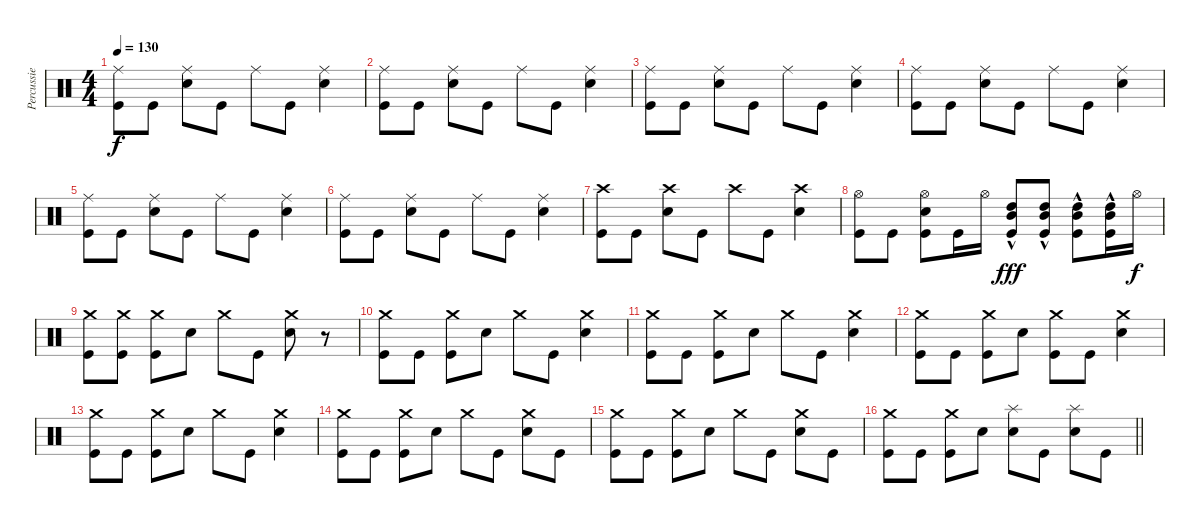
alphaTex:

\track ("Percussie" "Percussie") {instrument percussion}
\staff {score}
\articulation defaults
\ts (4 4)
\tempo 130
\clef neutral
\ks c
("Ride (middle)" "Kick (hit)").8{dy f} "Kick (hit)".8 ("Ride (middle)" "Snare (hit) 2").8 "Kick (hit)".8 "Ride (middle)".8 "Kick (hit)".8 ("Ride (middle)" "Snare (hit) 2").4 |
("Ride (middle)" "Kick (hit)").8 "Kick (hit)".8 ("Ride (middle)" "Snare (hit) 2").8 "Kick (hit)".8 "Ride (middle)".8 "Kick (hit)".8 ("Ride (middle)" "Snare (hit) 2").4 |
("Ride (middle)" "Kick (hit)").8 "Kick (hit)".8 ("Ride (middle)" "Snare (hit) 2").8 "Kick (hit)".8 "Ride (middle)".8 "Kick (hit)".8 ("Ride (middle)" "Snare (hit) 2").4 |
("Ride (middle)" "Kick (hit)").8 "Kick (hit)".8 ("Ride (middle)" "Snare (hit) 2").8 "Kick (hit)".8 "Ride (middle)".8 "Kick (hit)".8 ("Ride (middle)" "Snare (hit) 2").4 |
("Ride (middle)" "Kick (hit)").8 "Kick (hit)".8 ("Ride (middle)" "Snare (hit) 2").8 "Kick (hit)".8 "Ride (middle)".8 "Kick (hit)".8 ("Ride (middle)" "Snare (hit) 2").4 |
("Ride (middle)" "Kick (hit)").8 "Kick (hit)".8 ("Ride (middle)" "Snare (hit) 2").8 "Kick (hit)".8 "Ride (middle)".8 "Kick (hit)".8 ("Ride (middle)" "Snare (hit) 2").4 |
("Crash high (hit)" "Kick (hit)").8 "Kick (hit)".8 ("Crash high (hit)" "Snare (hit) 2").8 "Kick (hit)".8 "Crash high (hit)".8 "Kick (hit)".8 ("Crash high (hit)" "Snare (hit) 2").4 |
("Hi-Hat (open)" "Kick (hit)").8 "Kick (hit)".8 ("Hi-Hat (open)" "Snare (hit) 2" "Kick (hit)").8 "Kick (hit)".16 "Hi-Hat (open)".16 ("Mid Tom (hit)"{hac} "High Tom (hit)"{hac} "Kick (hit)"{hac}).8{dy fff} ("Mid Tom (hit)"{hac} "High Tom (hit)"{hac} "Kick (hit)"{hac}).8 ("Mid Tom (hit)"{hac} "High Tom (hit)"{hac} "Kick (hit)"{hac}).8 ("Mid Tom (hit)"{hac} "High Tom (hit)"{hac} "Kick (hit)"{hac}).16 "Hi-Hat (open)".16{dy f} |
("Crash medium (hit)" "Kick (hit)").8 ("Crash medium (hit)" "Kick (hit)").8 ("Crash medium (hit)" "Kick (hit)").8 "Snare (hit) 2".8 "Crash medium (hit)".8 "Kick (hit)".8 ("Crash medium (hit)" "Snare (hit) 2").8 r.8 |
("Crash medium (hit)" "Kick (hit)").8 "Kick (hit)".8 ("Crash medium (hit)" "Kick (hit)").8 "Snare (hit) 2".8 "Crash medium (hit)".8 "Kick (hit)".8 ("Crash medium (hit)" "Snare (hit) 2").4 |
("Crash medium (hit)" "Kick (hit)").8 "Kick (hit)".8 ("Crash medium (hit)" "Kick (hit)").8 "Snare (hit) 2".8 "Crash medium (hit)".8 "Kick (hit)".8 ("Crash medium (hit)" "Snare (hit) 2").4 |
("Crash medium (hit)" "Kick (hit)").8 "Kick (hit)".8 ("Crash medium (hit)" "Kick (hit)").8 "Snare (hit) 2".8 ("Crash medium (hit)" "Kick (hit)").8 "Kick (hit)".8 ("Crash medium (hit)" "Snare (hit) 2").4 |
("Crash medium (hit)" "Kick (hit)").8 "Kick (hit)".8 ("Crash medium (hit)" "Kick (hit)").8 "Snare (hit) 2".8 "Crash medium (hit)".8 "Kick (hit)".8 ("Crash medium (hit)" "Snare (hit) 2").4 |
("Crash medium (hit)" "Kick (hit)").8 "Kick (hit)".8 ("Crash medium (hit)" "Kick (hit)").8 "Snare (hit) 2".8 "Crash medium (hit)".8 "Kick (hit)".8 ("Crash medium (hit)" "Snare (hit) 2").8 "Kick (hit)".8 |
("Crash medium (hit)" "Kick (hit)").8 "Kick (hit)".8 ("Crash medium (hit)" "Kick (hit)").8 "Snare (hit) 2".8 "Crash medium (hit)".8 "Kick (hit)".8 ("Crash medium (hit)" "Snare (hit) 2").8 "Kick (hit)".8 |
\barLineRight lightlight
("Crash medium (hit)" "Kick (hit)").8 "Kick (hit)".8 ("Crash medium (hit)" "Kick (hit)").8 "Snare (hit) 2".8 ("Splash (hit)" "Snare (hit) 2").8 "Kick (hit)".8 ("Splash (hit)" "Snare (hit) 2").8 "Kick (hit)".8
